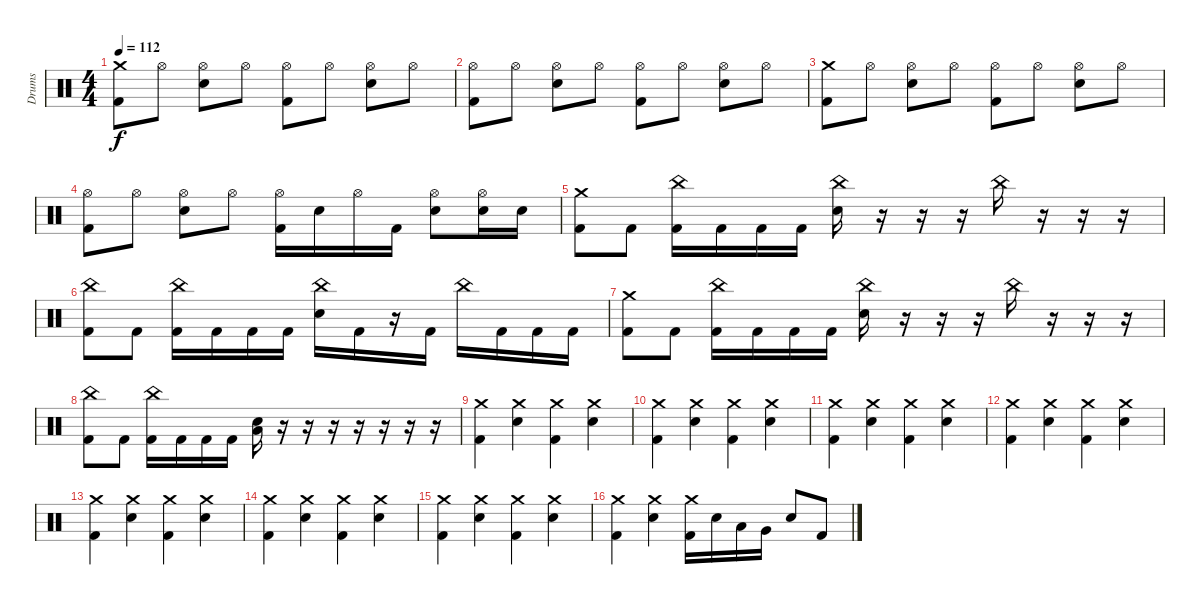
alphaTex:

\track ("Drums" "Drums") {instrument percussion}
\staff {score}
\articulation defaults
\ts (4 4)
\tempo 112
\clef neutral
\ks c
("Crash medium (hit)" "Kick (hit) 2").8{dy f} "Hi-Hat (open)".8 ("Hi-Hat (open)" "Electric Snare (hit)").8 "Hi-Hat (open)".8 ("Hi-Hat (open)" "Kick (hit) 2").8 "Hi-Hat (open)".8 ("Hi-Hat (open)" "Electric Snare (hit)").8 "Hi-Hat (open)".8 |
("Hi-Hat (open)" "Kick (hit) 2").8 "Hi-Hat (open)".8 ("Hi-Hat (open)" "Electric Snare (hit)").8 "Hi-Hat (open)".8 ("Hi-Hat (open)" "Kick (hit) 2").8 "Hi-Hat (open)".8 ("Hi-Hat (open)" "Electric Snare (hit)").8 "Hi-Hat (open)".8 |
("Crash medium (hit)" "Kick (hit) 2").8 "Hi-Hat (open)".8 ("Hi-Hat (open)" "Electric Snare (hit)").8 "Hi-Hat (open)".8 ("Hi-Hat (open)" "Kick (hit) 2").8 "Hi-Hat (open)".8 ("Hi-Hat (open)" "Electric Snare (hit)").8 "Hi-Hat (open)".8 |
("Hi-Hat (open)" "Kick (hit) 2").8 "Hi-Hat (open)".8 ("Hi-Hat (open)" "Electric Snare (hit)").8 "Hi-Hat (open)".8 ("Hi-Hat (open)" "Kick (hit) 2").16 "Electric Snare (hit)".16 "Hi-Hat (open)".16 "Kick (hit) 2".16 ("Hi-Hat (open)" "Electric Snare (hit)").8 ("Hi-Hat (open)" "Electric Snare (hit)").16 "Electric Snare (hit)".16 |
("Crash medium (hit)" "Kick (hit) 2").8 "Kick (hit) 2".8 ("China (hit)" "Kick (hit) 2").16 "Kick (hit) 2".16 "Kick (hit) 2".16 "Kick (hit) 2".16 ("China (hit)" "Electric Snare (hit)").16 r.16 r.16 r.16 "China (hit)".16 r.16 r.16 r.16 |
("China (hit)" "Kick (hit) 2").8 "Kick (hit) 2".8 ("China (hit)" "Kick (hit) 2").16 "Kick (hit) 2".16 "Kick (hit) 2".16 "Kick (hit) 2".16 ("China (hit)" "Electric Snare (hit)").16 "Kick (hit) 2".16 r.16 "Kick (hit) 2".16 "China (hit)".16 "Kick (hit) 2".16 "Kick (hit) 2".16 "Kick (hit) 2".16 |
("Crash medium (hit)" "Kick (hit) 2").8 "Kick (hit) 2".8 ("China (hit)" "Kick (hit) 2").16 "Kick (hit) 2".16 "Kick (hit) 2".16 "Kick (hit) 2".16 ("China (hit)" "Electric Snare (hit)").16 r.16 r.16 r.16 "China (hit)".16 r.16 r.16 r.16 |
("China (hit)" "Kick (hit) 2").8 "Kick (hit) 2".8 ("China (hit)" "Kick (hit) 2").16 "Kick (hit) 2".16 "Kick (hit) 2".16 "Kick (hit) 2".16 ("Low Floor Tom (hit)" "Electric Snare (hit)").16 r.16 r.16 r.16 r.16 r.16 r.16 r.16 |
("Crash medium (hit)" "Kick (hit) 2").4 ("Crash medium (hit)" "Electric Snare (hit)").4 ("Crash medium (hit)" "Kick (hit) 2").4 ("Crash medium (hit)" "Electric Snare (hit)").4 |
("Crash medium (hit)" "Kick (hit) 2").4 ("Crash medium (hit)" "Electric Snare (hit)").4 ("Crash medium (hit)" "Kick (hit) 2").4 ("Crash medium (hit)" "Electric Snare (hit)").4 |
("Crash medium (hit)" "Kick (hit) 2").4 ("Crash medium (hit)" "Electric Snare (hit)").4 ("Crash medium (hit)" "Kick (hit) 2").4 ("Crash medium (hit)" "Electric Snare (hit)").4 |
("Crash medium (hit)" "Kick (hit) 2").4 ("Crash medium (hit)" "Electric Snare (hit)").4 ("Crash medium (hit)" "Kick (hit) 2").4 ("Crash medium (hit)" "Electric Snare (hit)").4 |
("Crash medium (hit)" "Kick (hit) 2").4 ("Crash medium (hit)" "Electric Snare (hit)").4 ("Crash medium (hit)" "Kick (hit) 2").4 ("Crash medium (hit)" "Electric Snare (hit)").4 |
("Crash medium (hit)" "Kick (hit) 2").4 ("Crash medium (hit)" "Electric Snare (hit)").4 ("Crash medium (hit)" "Kick (hit) 2").4 ("Crash medium (hit)" "Electric Snare (hit)").4 |
("Crash medium (hit)" "Kick (hit) 2").4 ("Crash medium (hit)" "Electric Snare (hit)").4 ("Crash medium (hit)" "Kick (hit) 2").4 ("Crash medium (hit)" "Electric Snare (hit)").4 |
("Crash medium (hit)" "Kick (hit) 2").4 ("Crash medium (hit)" "Electric Snare (hit)").4 ("Crash medium (hit)" "Kick (hit) 2").16 "Electric Snare (hit)".16 "Low Tom (hit)".16 "Very Low Tom (hit)".16 "Electric Snare (hit)".8 "Kick (hit) 2".8
